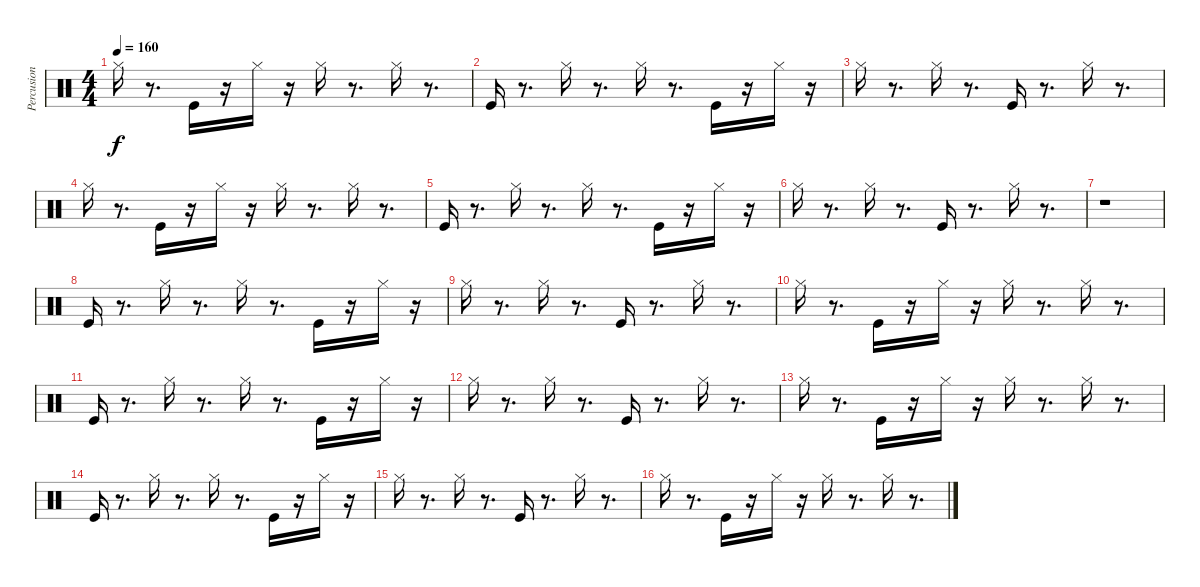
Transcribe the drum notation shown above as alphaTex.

\track ("Percusion" "Percusion") {instrument percussion}
\staff {score}
\articulation defaults
\ts (4 4)
\tempo 160
\clef neutral
\ks c "Hi-Hat (closed)".16{dy f}
r.8{d} "Kick (hit)".16 r.16 "Hi-Hat (closed)".16 r.16 "Hi-Hat (closed)".16 r.8{d} "Hi-Hat (closed)".16 r.8{d} |
"Kick (hit)".16 r.8{d} "Hi-Hat (closed)".16 r.8{d} "Hi-Hat (closed)".16 r.8{d} "Kick (hit)".16 r.16 "Hi-Hat (closed)".16 r.16 |
"Hi-Hat (closed)".16 r.8{d} "Hi-Hat (closed)".16 r.8{d} "Kick (hit)".16 r.8{d} "Hi-Hat (closed)".16 r.8{d} |
"Hi-Hat (closed)".16 r.8{d} "Kick (hit)".16 r.16 "Hi-Hat (closed)".16 r.16 "Hi-Hat (closed)".16 r.8{d} "Hi-Hat (closed)".16 r.8{d} |
"Kick (hit)".16 r.8{d} "Hi-Hat (closed)".16 r.8{d} "Hi-Hat (closed)".16 r.8{d} "Kick (hit)".16 r.16 "Hi-Hat (closed)".16 r.16 |
"Hi-Hat (closed)".16 r.8{d} "Hi-Hat (closed)".16 r.8{d} "Kick (hit)".16 r.8{d} "Hi-Hat (closed)".16 r.8{d} |
r.1 |
"Kick (hit)".16 r.8{d} "Hi-Hat (closed)".16 r.8{d} "Hi-Hat (closed)".16 r.8{d} "Kick (hit)".16 r.16 "Hi-Hat (closed)".16 r.16 |
"Hi-Hat (closed)".16 r.8{d} "Hi-Hat (closed)".16 r.8{d} "Kick (hit)".16 r.8{d} "Hi-Hat (closed)".16 r.8{d} |
"Hi-Hat (closed)".16 r.8{d} "Kick (hit)".16 r.16 "Hi-Hat (closed)".16 r.16 "Hi-Hat (closed)".16 r.8{d} "Hi-Hat (closed)".16 r.8{d} |
"Kick (hit)".16 r.8{d} "Hi-Hat (closed)".16 r.8{d} "Hi-Hat (closed)".16 r.8{d} "Kick (hit)".16 r.16 "Hi-Hat (closed)".16 r.16 |
"Hi-Hat (closed)".16 r.8{d} "Hi-Hat (closed)".16 r.8{d} "Kick (hit)".16 r.8{d} "Hi-Hat (closed)".16 r.8{d} |
"Hi-Hat (closed)".16 r.8{d} "Kick (hit)".16 r.16 "Hi-Hat (closed)".16 r.16 "Hi-Hat (closed)".16 r.8{d} "Hi-Hat (closed)".16 r.8{d} |
"Kick (hit)".16 r.8{d} "Hi-Hat (closed)".16 r.8{d} "Hi-Hat (closed)".16 r.8{d} "Kick (hit)".16 r.16 "Hi-Hat (closed)".16 r.16 |
"Hi-Hat (closed)".16 r.8{d} "Hi-Hat (closed)".16 r.8{d} "Kick (hit)".16 r.8{d} "Hi-Hat (closed)".16 r.8{d} |
"Hi-Hat (closed)".16 r.8{d} "Kick (hit)".16 r.16 "Hi-Hat (closed)".16 r.16 "Hi-Hat (closed)".16 r.8{d} "Hi-Hat (closed)".16 r.8{d}
